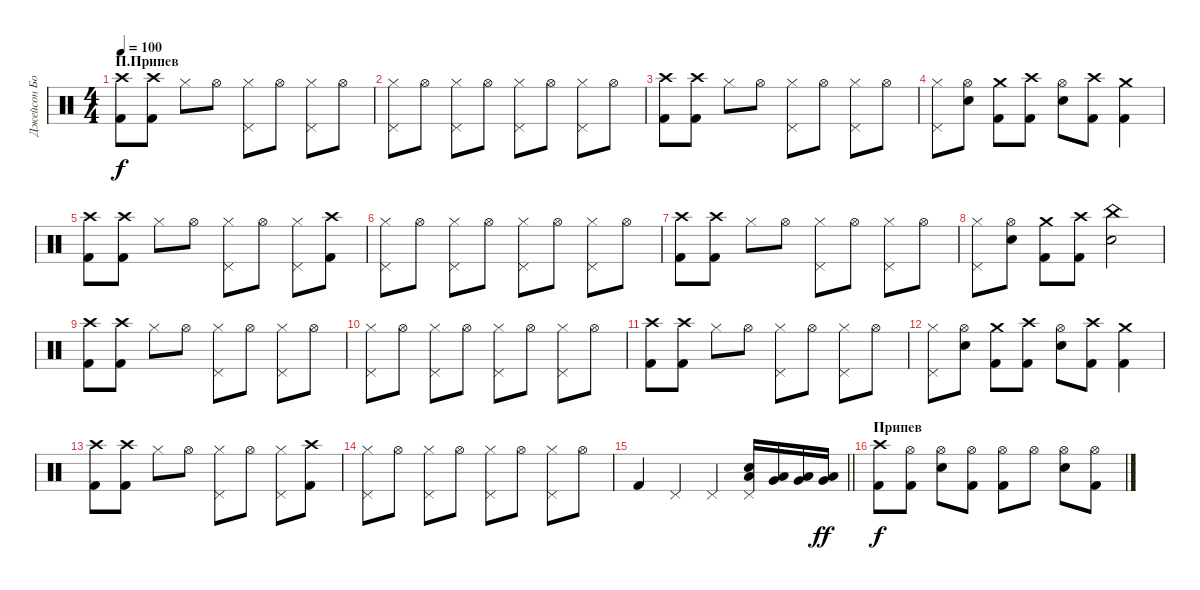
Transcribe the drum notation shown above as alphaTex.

\track ("Джейсон Бонэм" "Джейсон Бо") {instrument percussion}
\staff {score}
\articulation defaults
\ts (4 4)
\section ("" "П.Припев")
\tempo 100
\clef neutral
\ks c
("Crash high (hit)" "Kick (hit) 2").8{dy f} ("Crash high (hit)" "Kick (hit) 2").8 "Hi-Hat (closed)".8 "Hi-Hat (open)".8 ("Hi-Hat (closed)" "Pedal Hi-Hat (hit)").8 "Hi-Hat (open)".8 ("Hi-Hat (closed)" "Pedal Hi-Hat (hit)").8 "Hi-Hat (open)".8 |
("Hi-Hat (closed)" "Pedal Hi-Hat (hit)").8 "Hi-Hat (open)".8 ("Hi-Hat (closed)" "Pedal Hi-Hat (hit)").8 "Hi-Hat (open)".8 ("Hi-Hat (closed)" "Pedal Hi-Hat (hit)").8 "Hi-Hat (open)".8 ("Hi-Hat (closed)" "Pedal Hi-Hat (hit)").8 "Hi-Hat (open)".8 |
("Crash high (hit)" "Kick (hit) 2").8 ("Crash high (hit)" "Kick (hit) 2").8 "Hi-Hat (closed)".8 "Hi-Hat (open)".8 ("Hi-Hat (closed)" "Pedal Hi-Hat (hit)").8 "Hi-Hat (open)".8 ("Hi-Hat (closed)" "Pedal Hi-Hat (hit)").8 "Hi-Hat (open)".8 |
("Hi-Hat (closed)" "Pedal Hi-Hat (hit)").8 ("Hi-Hat (open)" "Snare (hit) 2").8 ("Crash medium (hit)" "Kick (hit) 2").8 ("Crash high (hit)" "Kick (hit) 2").8 ("Hi-Hat (open)" "Snare (hit) 2").8 ("Crash high (hit)" "Kick (hit) 2").8 ("Crash medium (hit)" "Kick (hit) 2").4 |
("Crash high (hit)" "Kick (hit) 2").8 ("Crash high (hit)" "Kick (hit) 2").8 "Hi-Hat (closed)".8 "Hi-Hat (open)".8 ("Hi-Hat (closed)" "Pedal Hi-Hat (hit)").8 "Hi-Hat (open)".8 ("Hi-Hat (closed)" "Pedal Hi-Hat (hit)").8 ("Crash high (hit)" "Kick (hit) 2").8 |
("Hi-Hat (closed)" "Pedal Hi-Hat (hit)").8 "Hi-Hat (open)".8 ("Hi-Hat (closed)" "Pedal Hi-Hat (hit)").8 "Hi-Hat (open)".8 ("Hi-Hat (closed)" "Pedal Hi-Hat (hit)").8 "Hi-Hat (open)".8 ("Hi-Hat (closed)" "Pedal Hi-Hat (hit)").8 "Hi-Hat (open)".8 |
("Crash high (hit)" "Kick (hit) 2").8 ("Crash high (hit)" "Kick (hit) 2").8 "Hi-Hat (closed)".8 "Hi-Hat (open)".8 ("Hi-Hat (closed)" "Pedal Hi-Hat (hit)").8 "Hi-Hat (open)".8 ("Hi-Hat (closed)" "Pedal Hi-Hat (hit)").8 "Hi-Hat (open)".8 |
("Hi-Hat (closed)" "Pedal Hi-Hat (hit)").8 ("Hi-Hat (open)" "Snare (hit) 2").8 ("Crash medium (hit)" "Kick (hit) 2").8 ("Crash high (hit)" "Kick (hit) 2").8 ("China (hit)" "Snare (hit) 2").2 |
("Crash high (hit)" "Kick (hit) 2").8 ("Crash high (hit)" "Kick (hit) 2").8 "Hi-Hat (closed)".8 "Hi-Hat (open)".8 ("Hi-Hat (closed)" "Pedal Hi-Hat (hit)").8 "Hi-Hat (open)".8 ("Hi-Hat (closed)" "Pedal Hi-Hat (hit)").8 "Hi-Hat (open)".8 |
("Hi-Hat (closed)" "Pedal Hi-Hat (hit)").8 "Hi-Hat (open)".8 ("Hi-Hat (closed)" "Pedal Hi-Hat (hit)").8 "Hi-Hat (open)".8 ("Hi-Hat (closed)" "Pedal Hi-Hat (hit)").8 "Hi-Hat (open)".8 ("Hi-Hat (closed)" "Pedal Hi-Hat (hit)").8 "Hi-Hat (open)".8 |
("Crash high (hit)" "Kick (hit) 2").8 ("Crash high (hit)" "Kick (hit) 2").8 "Hi-Hat (closed)".8 "Hi-Hat (open)".8 ("Hi-Hat (closed)" "Pedal Hi-Hat (hit)").8 "Hi-Hat (open)".8 ("Hi-Hat (closed)" "Pedal Hi-Hat (hit)").8 "Hi-Hat (open)".8 |
("Hi-Hat (closed)" "Pedal Hi-Hat (hit)").8 ("Hi-Hat (open)" "Snare (hit) 2").8 ("Crash medium (hit)" "Kick (hit) 2").8 ("Crash high (hit)" "Kick (hit) 2").8 ("Hi-Hat (open)" "Snare (hit) 2").8 ("Crash high (hit)" "Kick (hit) 2").8 ("Crash medium (hit)" "Kick (hit) 2").4 |
("Crash high (hit)" "Kick (hit) 2").8 ("Crash high (hit)" "Kick (hit) 2").8 "Hi-Hat (closed)".8 "Hi-Hat (open)".8 ("Hi-Hat (closed)" "Pedal Hi-Hat (hit)").8 "Hi-Hat (open)".8 ("Hi-Hat (closed)" "Pedal Hi-Hat (hit)").8 ("Crash high (hit)" "Kick (hit) 2").8 |
("Hi-Hat (closed)" "Pedal Hi-Hat (hit)").8 "Hi-Hat (open)".8 ("Hi-Hat (closed)" "Pedal Hi-Hat (hit)").8 "Hi-Hat (open)".8 ("Hi-Hat (closed)" "Pedal Hi-Hat (hit)").8 "Hi-Hat (open)".8 ("Hi-Hat (closed)" "Pedal Hi-Hat (hit)").8 "Hi-Hat (open)".8 |
\barLineRight lightlight "Kick (hit) 2".4 "Pedal Hi-Hat (hit)".4 "Pedal Hi-Hat (hit)".4
("Low Floor Tom (hit)" "Snare (hit) 2" "Pedal Hi-Hat (hit)").16 ("Very Low Tom (hit)" "Low Tom (hit)").16 ("Very Low Tom (hit)" "Low Tom (hit)").16 ("Very Low Tom (hit)" "Low Floor Tom (hit)").16{dy ff} |
\section ("" "Припев")
("Crash high (hit)" "Kick (hit) 2").8{dy f} ("Hi-Hat (open)" "Kick (hit) 2").8 ("Hi-Hat (open)" "Snare (hit) 2").8 ("Hi-Hat (open)" "Kick (hit) 2").8 ("Hi-Hat (open)" "Kick (hit) 2").8 "Hi-Hat (open)".8 ("Hi-Hat (open)" "Snare (hit) 2").8 ("Hi-Hat (open)" "Kick (hit) 2").8
